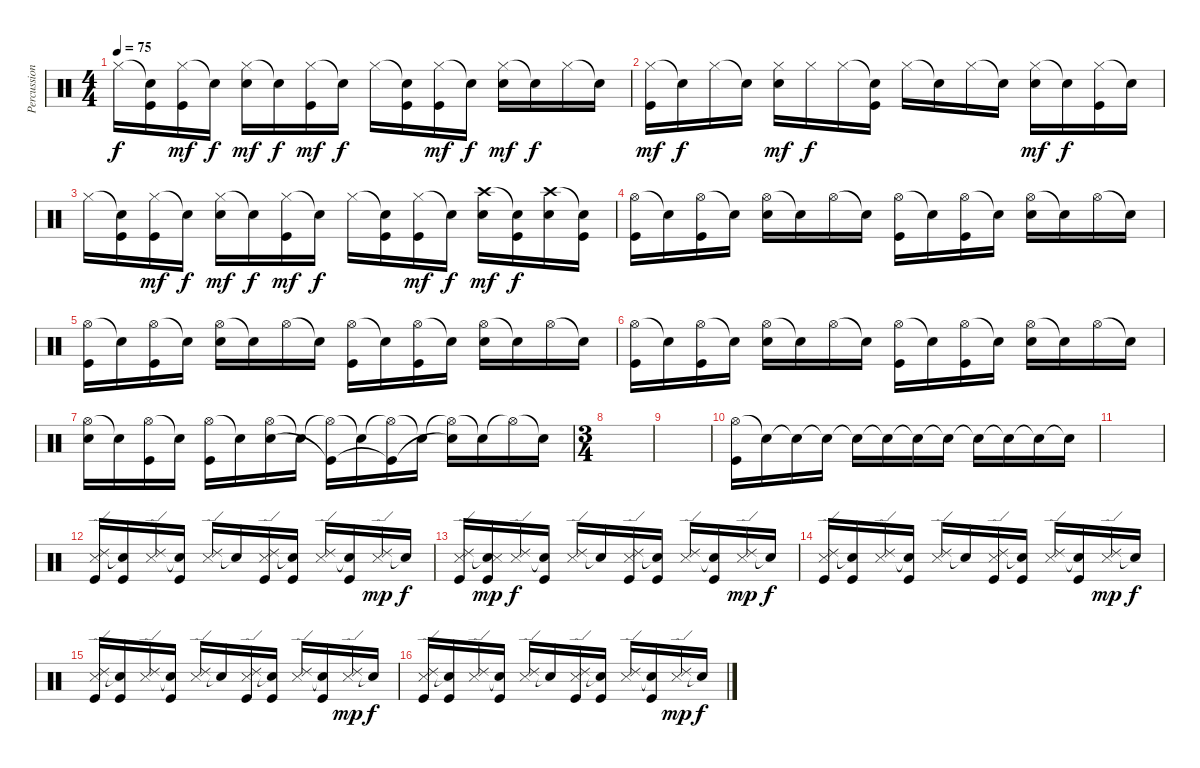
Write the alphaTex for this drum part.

\track ("Percussion" "Percussion") {instrument percussion}
\staff {score}
\articulation defaults
\ts (4 4)
\tempo 75
\clef neutral
\ks c "Hi-Hat (closed)".16{dy f}
("Snare (hit)"{t} "Kick (hit)").16 ("Hi-Hat (closed)" "Kick (hit)").16{dy mf} "Snare (hit)"{t}.16{dy f} ("Hi-Hat (closed)" "Electric Snare (hit)").16{dy mf} "Snare (hit)"{t}.16{dy f} ("Hi-Hat (closed)" "Kick (hit)").16{dy mf} "Snare (hit)"{t}.16{dy f} "Hi-Hat (closed)".16 ("Snare (hit)"{t} "Kick (hit)").16 ("Hi-Hat (closed)" "Kick (hit)").16{dy mf} "Snare (hit)"{t}.16{dy f} ("Hi-Hat (closed)" "Electric Snare (hit)").16{dy mf} "Snare (hit)"{t}.16{dy f} "Hi-Hat (closed)".16 "Snare (hit)"{t}.16 |
("Hi-Hat (closed)" "Kick (hit)").16{dy mf} "Snare (hit)"{t}.16{dy f} "Hi-Hat (closed)".16 "Snare (hit)"{t}.16 ("Hi-Hat (closed)" "Electric Snare (hit)").16{dy mf} "Hi-Hat (closed)".16{dy f} "Hi-Hat (closed)".16 ("Snare (hit)"{t} "Kick (hit)").16 "Hi-Hat (closed)".16 "Snare (hit)"{t}.16 "Hi-Hat (closed)".16 "Snare (hit)"{t}.16 ("Hi-Hat (closed)" "Electric Snare (hit)").16{dy mf} "Snare (hit)"{t}.16{dy f} ("Hi-Hat (closed)" "Kick (hit)").16 "Snare (hit)"{t}.16 |
"Hi-Hat (closed)".16 ("Snare (hit)"{t} "Kick (hit)").16 ("Hi-Hat (closed)" "Kick (hit)").16{dy mf} "Snare (hit)"{t}.16{dy f} ("Hi-Hat (closed)" "Electric Snare (hit)").16{dy mf} "Snare (hit)"{t}.16{dy f} ("Hi-Hat (closed)" "Kick (hit)").16{dy mf} "Snare (hit)"{t}.16{dy f} "Hi-Hat (closed)".16 ("Snare (hit)"{t} "Kick (hit)").16 ("Hi-Hat (closed)" "Kick (hit)").16{dy mf} "Snare (hit)"{t}.16{dy f} ("Crash high (hit)" "Electric Snare (hit)").16{dy mf} ("Snare (hit)"{t} "Kick (hit)").16{dy f} ("Crash high (hit)" "Electric Snare (hit)").16 ("Snare (hit)"{t} "Kick (hit)").16 |
("Hi-Hat (open)" "Kick (hit)").16 "Snare (hit)"{t}.16 ("Hi-Hat (open)" "Kick (hit)").16 "Snare (hit)"{t}.16 ("Hi-Hat (open)" "Electric Snare (hit)").16 "Snare (hit)"{t}.16 "Hi-Hat (open)".16 "Snare (hit)"{t}.16 ("Hi-Hat (open)" "Kick (hit)").16 "Snare (hit)"{t}.16 ("Hi-Hat (open)" "Kick (hit)").16 "Snare (hit)"{t}.16 ("Hi-Hat (open)" "Electric Snare (hit)").16 "Snare (hit)"{t}.16 "Hi-Hat (open)".16 "Snare (hit)"{t}.16 |
("Hi-Hat (open)" "Kick (hit)").16 "Snare (hit)"{t}.16 ("Hi-Hat (open)" "Kick (hit)").16 "Snare (hit)"{t}.16 ("Hi-Hat (open)" "Electric Snare (hit)").16 "Snare (hit)"{t}.16 "Hi-Hat (open)".16 "Snare (hit)"{t}.16 ("Hi-Hat (open)" "Kick (hit)").16 "Snare (hit)"{t}.16 ("Hi-Hat (open)" "Kick (hit)").16 "Snare (hit)"{t}.16 ("Hi-Hat (open)" "Electric Snare (hit)").16 "Snare (hit)"{t}.16 "Hi-Hat (open)".16 "Snare (hit)"{t}.16 |
("Hi-Hat (open)" "Kick (hit)").16 "Snare (hit)"{t}.16 ("Hi-Hat (open)" "Kick (hit)").16 "Snare (hit)"{t}.16 ("Hi-Hat (open)" "Electric Snare (hit)").16 "Snare (hit)"{t}.16 "Hi-Hat (open)".16 "Snare (hit)"{t}.16 ("Hi-Hat (open)" "Kick (hit)").16 "Snare (hit)"{t}.16 ("Hi-Hat (open)" "Kick (hit)").16 "Snare (hit)"{t}.16 ("Hi-Hat (open)" "Electric Snare (hit)").16 "Snare (hit)"{t}.16 "Hi-Hat (open)".16 "Snare (hit)"{t}.16 |
("Hi-Hat (open)" "Electric Snare (hit)").16 "Snare (hit)"{t}.16 ("Hi-Hat (open)" "Kick (hit)").16 "Snare (hit)"{t}.16 ("Hi-Hat (open)" "Kick (hit)").16 "Snare (hit)"{t}.16 ("Hi-Hat (open)" "Electric Snare (hit)").16 "Snare (hit)"{t}.16 ("Hi-Hat (open)"{t} "Kick (hit)"{t}).16 "Snare (hit)"{t}.16 ("Hi-Hat (open)"{t} "Kick (hit)"{t}).16 "Snare (hit)"{t}.16 ("Hi-Hat (open)"{t} "Electric Snare (hit)"{t}).16 "Snare (hit)"{t}.16 "Hi-Hat (open)"{t}.16 "Snare (hit)"{t}.16 |
\ts (3 4)
|
|
("Hi-Hat (open)" "Kick (hit)").16 "Snare (hit)"{t}.16 "Snare (hit)"{t}.16 "Snare (hit)"{t}.16 "Snare (hit)"{t}.16 "Snare (hit)"{t}.16 "Snare (hit)"{t}.16 "Snare (hit)"{t}.16 "Snare (hit)"{t}.16 "Snare (hit)"{t}.16 "Snare (hit)"{t}.16 "Snare (hit)"{t}.16 |
|
("Kick (hit)" "Ride (edge) 2" "Snare (side stick) 3").16 ("Kick (hit)" "Snare (hit)"{t}).16 ("Ride (edge) 2" "Snare (side stick) 3").16 ("Kick (hit)" "Snare (hit)"{t}).16 ("Ride (edge) 2" "Snare (side stick) 3").16 "Snare (hit)"{t}.16 ("Kick (hit)" "Ride (edge) 2" "Snare (side stick) 3").16 ("Kick (hit)" "Snare (hit)"{t}).16 ("Ride (edge) 2" "Snare (side stick) 3").16 ("Kick (hit)" "Snare (hit)"{t}).16 ("Ride (edge) 2" "Snare (side stick) 3").16{dy mp} "Snare (hit)"{t}.16{dy f} |
("Kick (hit)" "Ride (edge) 2" "Snare (side stick) 3").16 ("Kick (hit)" "Snare (hit)"{t} "Snare (side stick) 3").16{dy mp} ("Ride (edge) 2" "Snare (side stick) 3").16{dy f} ("Kick (hit)" "Snare (hit)"{t}).16 ("Ride (edge) 2" "Snare (side stick) 3").16 "Snare (hit)"{t}.16 ("Kick (hit)" "Ride (edge) 2" "Snare (side stick) 3").16 ("Kick (hit)" "Snare (hit)"{t}).16 ("Ride (edge) 2" "Snare (side stick) 3").16 ("Kick (hit)" "Snare (hit)"{t}).16 ("Ride (edge) 2" "Snare (side stick) 3").16{dy mp} "Snare (hit)"{t}.16{dy f} |
("Kick (hit)" "Ride (edge) 2" "Snare (side stick) 3").16 ("Kick (hit)" "Snare (hit)"{t}).16 ("Ride (edge) 2" "Snare (side stick) 3").16 ("Kick (hit)" "Snare (hit)"{t}).16 ("Ride (edge) 2" "Snare (side stick) 3").16 "Snare (hit)"{t}.16 ("Kick (hit)" "Ride (edge) 2" "Snare (side stick) 3").16 ("Kick (hit)" "Snare (hit)"{t}).16 ("Ride (edge) 2" "Snare (side stick) 3").16 ("Kick (hit)" "Snare (hit)"{t}).16 ("Ride (edge) 2" "Snare (side stick) 3").16{dy mp} "Snare (hit)"{t}.16{dy f} |
("Kick (hit)" "Ride (edge) 2" "Snare (side stick) 3").16 ("Kick (hit)" "Snare (hit)"{t}).16 ("Ride (edge) 2" "Snare (side stick) 3").16 ("Kick (hit)" "Snare (hit)"{t}).16 ("Ride (edge) 2" "Snare (side stick) 3").16 "Snare (hit)"{t}.16 ("Kick (hit)" "Ride (edge) 2" "Snare (side stick) 3").16 ("Kick (hit)" "Snare (hit)"{t}).16 ("Ride (edge) 2" "Snare (side stick) 3").16 ("Kick (hit)" "Snare (hit)"{t}).16 ("Ride (edge) 2" "Snare (side stick) 3").16{dy mp} "Snare (hit)"{t}.16{dy f} |
("Kick (hit)" "Ride (edge) 2" "Snare (side stick) 3").16 ("Kick (hit)" "Snare (hit)"{t}).16 ("Ride (edge) 2" "Snare (side stick) 3").16 ("Kick (hit)" "Snare (hit)"{t}).16 ("Ride (edge) 2" "Snare (side stick) 3").16 "Snare (hit)"{t}.16 ("Kick (hit)" "Ride (edge) 2" "Snare (side stick) 3").16 ("Kick (hit)" "Snare (hit)"{t}).16 ("Ride (edge) 2" "Snare (side stick) 3").16 ("Kick (hit)" "Snare (hit)"{t}).16 ("Ride (edge) 2" "Snare (side stick) 3").16{dy mp} "Snare (hit)"{t}.16{dy f}
